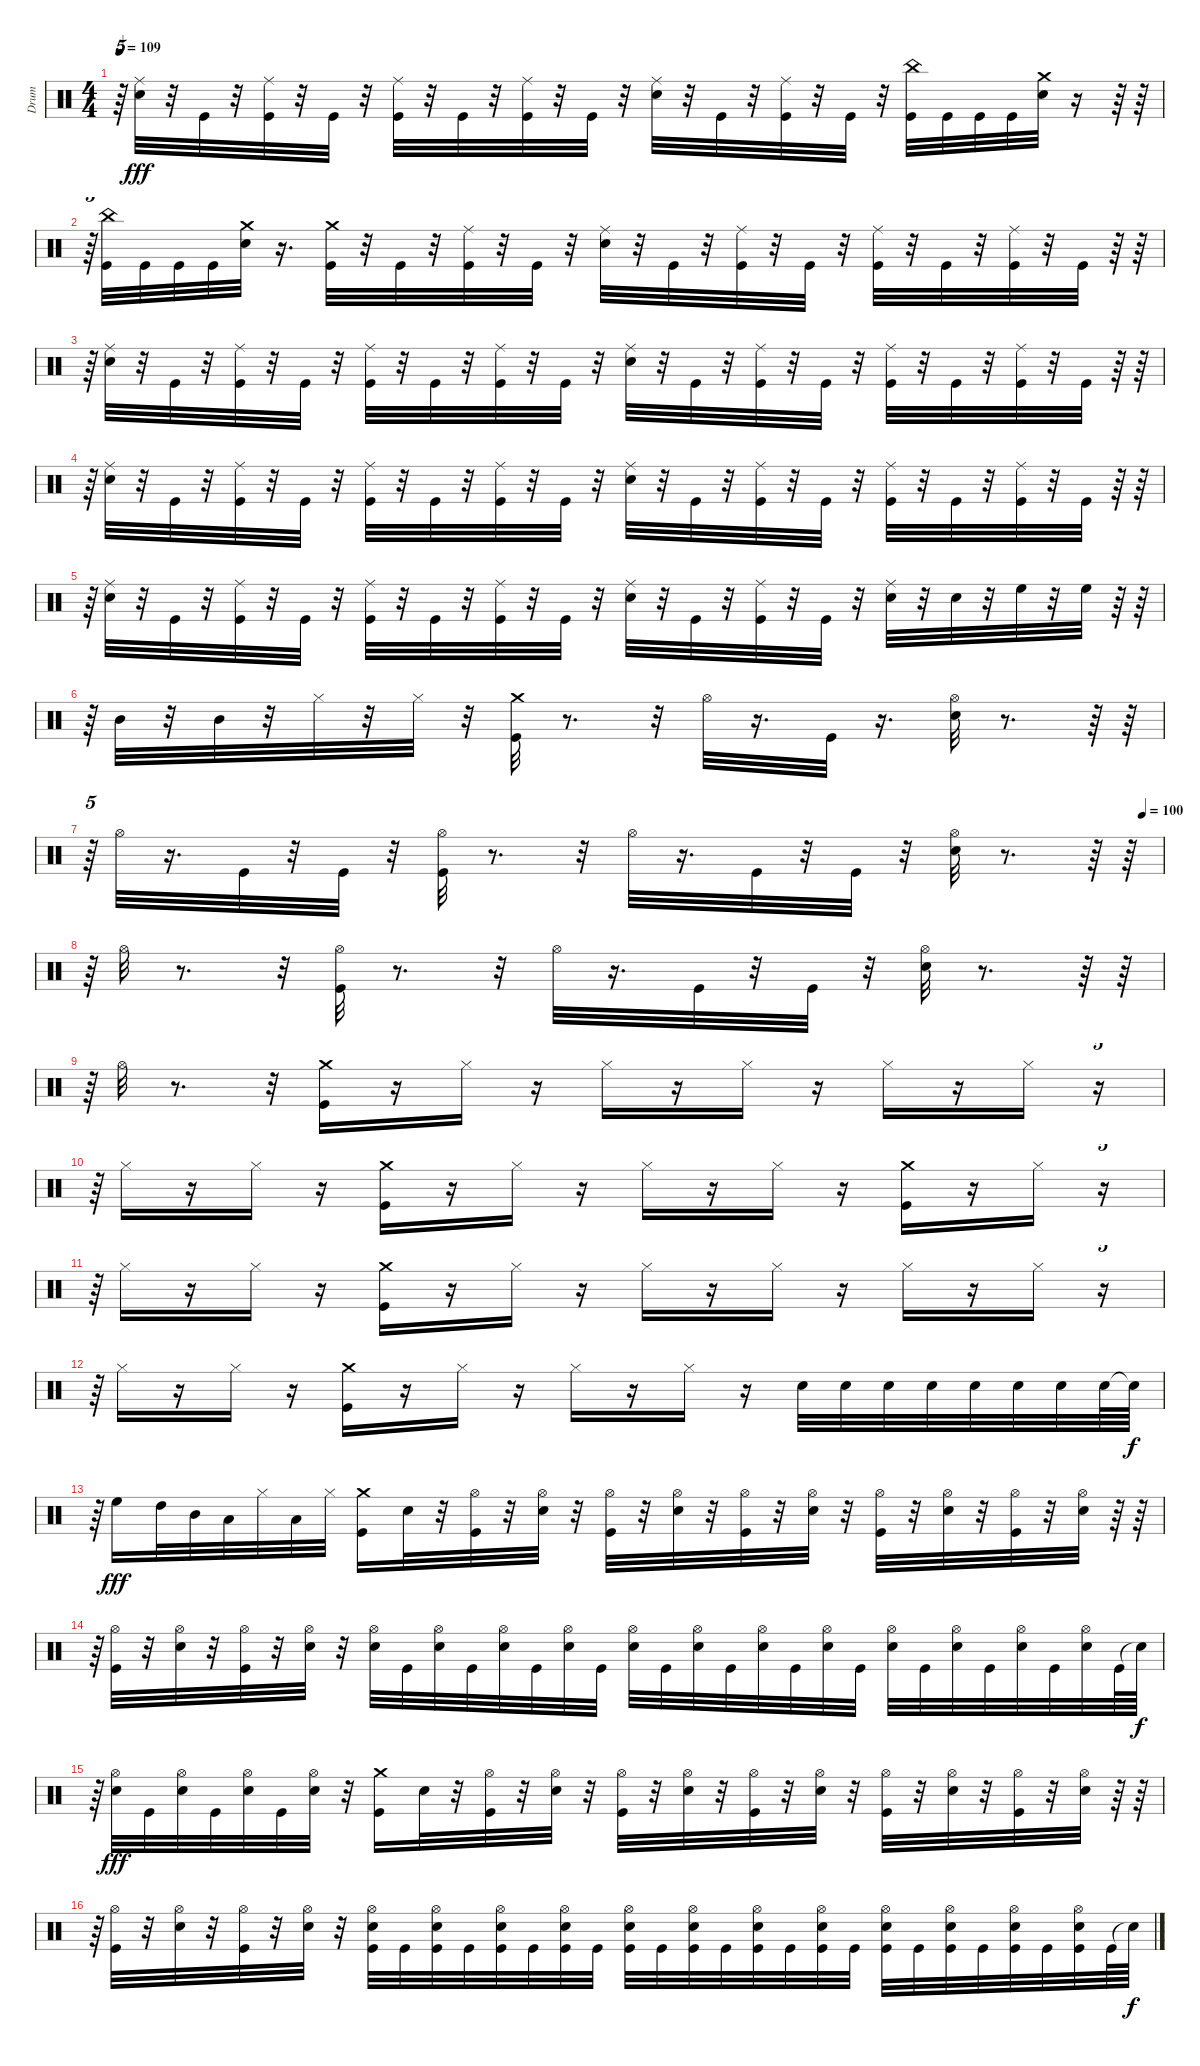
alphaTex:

\track ("Drum" "Drum") {instrument percussion}
\staff {score}
\articulation defaults
\ts (4 4)
\tempo 109
\clef neutral
\ks c
r.64{tu (5 4) dy fff} ("Snare (hit) 2" "Ride (middle)").32 r.32 "Kick (hit)".32 r.32 ("Kick (hit)" "Ride (middle)").32 r.32 "Kick (hit)".32 r.32 ("Kick (hit)" "Ride (middle)").32 r.32 "Kick (hit)".32 r.32 ("Ride (middle)" "Kick (hit)").32 r.32 "Kick (hit)".32 r.32 ("Ride (middle)" "Snare (hit) 2").32 r.32 "Kick (hit)".32 r.32 ("Kick (hit)" "Ride (middle)").32 r.32 "Kick (hit)".32 r.32 ("Kick (hit)" "China (hit)").32 "Kick (hit)".32 "Kick (hit)".32 "Kick (hit)".32 ("Crash medium (hit)" "Snare (hit) 2").32 r.16 r.64 r.64 |
r.64{tu (5 4)} ("China (hit)" "Kick (hit)").32 "Kick (hit)".32 "Kick (hit)".32 "Kick (hit)".32 ("Crash medium (hit)" "Snare (hit) 2").32 r.16{d} ("Crash medium (hit)" "Kick (hit)").32 r.32 "Kick (hit)".32 r.32 ("Kick (hit)" "Ride (middle)").32 r.32 "Kick (hit)".32 r.32 ("Ride (middle)" "Snare (hit) 2").32 r.32 "Kick (hit)".32 r.32 ("Kick (hit)" "Ride (middle)").32 r.32 "Kick (hit)".32 r.32 ("Ride (middle)" "Kick (hit)").32 r.32 "Kick (hit)".32 r.32 ("Kick (hit)" "Ride (middle)").32 r.32 "Kick (hit)".32 r.64 r.64 |
r.64{tu (5 4)} ("Snare (hit) 2" "Ride (middle)").32 r.32 "Kick (hit)".32 r.32 ("Ride (middle)" "Kick (hit)").32 r.32 "Kick (hit)".32 r.32 ("Kick (hit)" "Ride (middle)").32 r.32 "Kick (hit)".32 r.32 ("Ride (middle)" "Kick (hit)").32 r.32 "Kick (hit)".32 r.32 ("Snare (hit) 2" "Ride (middle)").32 r.32 "Kick (hit)".32 r.32 ("Kick (hit)" "Ride (middle)").32 r.32 "Kick (hit)".32 r.32 ("Kick (hit)" "Ride (middle)").32 r.32 "Kick (hit)".32 r.32 ("Ride (middle)" "Kick (hit)").32 r.32 "Kick (hit)".32 r.64 r.64 |
r.64{tu (5 4)} ("Snare (hit) 2" "Ride (middle)").32 r.32 "Kick (hit)".32 r.32 ("Ride (middle)" "Kick (hit)").32 r.32 "Kick (hit)".32 r.32 ("Kick (hit)" "Ride (middle)").32 r.32 "Kick (hit)".32 r.32 ("Kick (hit)" "Ride (middle)").32 r.32 "Kick (hit)".32 r.32 ("Ride (middle)" "Snare (hit) 2").32 r.32 "Kick (hit)".32 r.32 ("Ride (middle)" "Kick (hit)").32 r.32 "Kick (hit)".32 r.32 ("Ride (middle)" "Kick (hit)").32 r.32 "Kick (hit)".32 r.32 ("Ride (middle)" "Kick (hit)").32 r.32 "Kick (hit)".32 r.64 r.64 |
r.64{tu (5 4)} ("Snare (hit) 2" "Ride (middle)").32 r.32 "Kick (hit)".32 r.32 ("Ride (middle)" "Kick (hit)").32 r.32 "Kick (hit)".32 r.32 ("Ride (middle)" "Kick (hit)").32 r.32 "Kick (hit)".32 r.32 ("Kick (hit)" "Ride (middle)").32 r.32 "Kick (hit)".32 r.32 ("Ride (middle)" "Snare (hit) 2").32 r.32 "Kick (hit)".32 r.32 ("Ride (middle)" "Kick (hit)").32 r.32 "Kick (hit)".32 r.32 ("Snare (hit) 2" "Ride (middle)").32 r.32 "Snare (hit) 2".32 r.32 "High Floor Tom (hit)".32 r.32 "High Floor Tom (hit)".32 r.64 r.64 |
r.64{tu (5 4)} "Mid Tom (hit)".32 r.32 "Mid Tom (hit)".32 r.32 "Hi-Hat (closed)".32 r.32 "Hi-Hat (closed)".32 r.32 ("Crash medium (hit)" "Kick (hit)").32 r.8{d} r.32 "Hi-Hat (open)".32 r.16{d} "Kick (hit)".32 r.16{d} ("Hi-Hat (open)" "Snare (hit) 2").32 r.8{d} r.64 r.64 |
\tempo (100 0.98125)
r.64{tu (5 4)} "Hi-Hat (open)".32 r.16{d} "Kick (hit)".32 r.32 "Kick (hit)".32 r.32 ("Hi-Hat (open)" "Kick (hit)").32 r.8{d} r.32 "Hi-Hat (open)".32 r.16{d} "Kick (hit)".32 r.32 "Kick (hit)".32 r.32 ("Snare (hit) 2" "Hi-Hat (open)").32 r.8{d} r.64 r.64 |
r.64{tu (5 4)} "Hi-Hat (open)".32 r.8{d} r.32 ("Hi-Hat (open)" "Kick (hit)").32 r.8{d} r.32 "Hi-Hat (open)".32 r.16{d} "Kick (hit)".32 r.32 "Kick (hit)".32 r.32 ("Hi-Hat (open)" "Snare (hit) 2").32 r.8{d} r.64 r.64 |
r.64{tu (5 4)} "Hi-Hat (open)".32 r.8{d} r.32 ("Crash medium (hit)" "Kick (hit)").16 r.16 "Hi-Hat (closed)".16 r.16 "Hi-Hat (closed)".16 r.16 "Hi-Hat (closed)".16 r.16 "Hi-Hat (closed)".16 r.16 "Hi-Hat (closed)".16 r.16{tu (5 4)} |
r.64{tu (5 4)} "Hi-Hat (closed)".16 r.16 "Hi-Hat (closed)".16 r.16 ("Kick (hit)" "Crash medium (hit)").16 r.16 "Hi-Hat (closed)".16 r.16 "Hi-Hat (closed)".16 r.16 "Hi-Hat (closed)".16 r.16 ("Crash medium (hit)" "Kick (hit)").16 r.16 "Hi-Hat (closed)".16 r.16{tu (5 4)} |
r.64{tu (5 4)} "Hi-Hat (closed)".16 r.16 "Hi-Hat (closed)".16 r.16 ("Crash medium (hit)" "Kick (hit)").16 r.16 "Hi-Hat (closed)".16 r.16 "Hi-Hat (closed)".16 r.16 "Hi-Hat (closed)".16 r.16 "Hi-Hat (closed)".16 r.16 "Hi-Hat (closed)".16 r.16{tu (5 4)} |
r.64{tu (5 4)} "Hi-Hat (closed)".16 r.16 "Hi-Hat (closed)".16 r.16 ("Kick (hit)" "Crash medium (hit)").16 r.16 "Hi-Hat (closed)".16 r.16 "Hi-Hat (closed)".16 r.16 "Hi-Hat (closed)".16 r.16 "Snare (hit) 2".32 "Snare (hit) 2".32 "Snare (hit) 2".32 "Snare (hit) 2".32 "Snare (hit) 2".32 "Snare (hit) 2".32 "Snare (hit) 2".32 "Snare (hit) 2".64 "Snare (hit)"{t}.64{dy f} |
r.64{tu (5 4)} "High Floor Tom (hit)".16{dy fff} "High Tom (hit)".32 "Mid Tom (hit)".32 "Low Tom (hit)".32 "Hi-Hat (closed)".32 "Low Floor Tom (hit)".32 "Hi-Hat (closed)".32 ("Crash medium (hit)" "Kick (hit)").16 "Snare (hit) 2".32 r.32 ("Kick (hit)" "Hi-Hat (open)").32 r.32 ("Snare (hit) 2" "Hi-Hat (open)").32 r.32 ("Hi-Hat (open)" "Kick (hit)").32 r.32 ("Hi-Hat (open)" "Snare (hit) 2").32 r.32 ("Kick (hit)" "Hi-Hat (open)").32 r.32 ("Snare (hit) 2" "Hi-Hat (open)").32 r.32 ("Hi-Hat (open)" "Kick (hit)").32 r.32 ("Hi-Hat (open)" "Snare (hit) 2").32 r.32 ("Kick (hit)" "Hi-Hat (open)").32 r.32 ("Snare (hit) 2" "Hi-Hat (open)").32 r.64 r.64 |
r.64{tu (5 4)} ("Hi-Hat (open)" "Kick (hit)").32 r.32 ("Snare (hit) 2" "Hi-Hat (open)").32 r.32 ("Hi-Hat (open)" "Kick (hit)").32 r.32 ("Hi-Hat (open)" "Snare (hit) 2").32 r.32 ("Hi-Hat (open)" "Snare (hit) 2").32 "Kick (hit)".32 ("Snare (hit) 2" "Hi-Hat (open)").32 "Kick (hit)".32 ("Snare (hit) 2" "Hi-Hat (open)").32 "Kick (hit)".32 ("Hi-Hat (open)" "Snare (hit) 2").32 "Kick (hit)".32 ("Snare (hit) 2" "Hi-Hat (open)").32 "Kick (hit)".32 ("Snare (hit) 2" "Hi-Hat (open)").32 "Kick (hit)".32 ("Hi-Hat (open)" "Snare (hit) 2").32 "Kick (hit)".32 ("Hi-Hat (open)" "Snare (hit) 2").32 "Kick (hit)".32 ("Hi-Hat (open)" "Snare (hit) 2").32 "Kick (hit)".32 ("Snare (hit) 2" "Hi-Hat (open)").32 "Kick (hit)".32 ("Hi-Hat (open)" "Snare (hit) 2").32 "Kick (hit)".32 ("Snare (hit) 2" "Hi-Hat (open)").32 "Kick (hit)".64 "Snare (hit)"{t}.64{dy f} |
r.64{tu (5 4)} ("Hi-Hat (open)" "Snare (hit) 2").32{dy fff} "Kick (hit)".32 ("Snare (hit) 2" "Hi-Hat (open)").32 "Kick (hit)".32 ("Hi-Hat (open)" "Snare (hit) 2").32 "Kick (hit)".32 ("Hi-Hat (open)" "Snare (hit) 2").32 r.32 ("Crash medium (hit)" "Kick (hit)").16 "Snare (hit) 2".32 r.32 ("Kick (hit)" "Hi-Hat (open)").32 r.32 ("Snare (hit) 2" "Hi-Hat (open)").32 r.32 ("Hi-Hat (open)" "Kick (hit)").32 r.32 ("Snare (hit) 2" "Hi-Hat (open)").32 r.32 ("Kick (hit)" "Hi-Hat (open)").32 r.32 ("Snare (hit) 2" "Hi-Hat (open)").32 r.32 ("Hi-Hat (open)" "Kick (hit)").32 r.32 ("Hi-Hat (open)" "Snare (hit) 2").32 r.32 ("Hi-Hat (open)" "Kick (hit)").32 r.32 ("Snare (hit) 2" "Hi-Hat (open)").32 r.64 r.64 |
r.64{tu (5 4)} ("Hi-Hat (open)" "Kick (hit)").32 r.32 ("Hi-Hat (open)" "Snare (hit) 2").32 r.32 ("Hi-Hat (open)" "Kick (hit)").32 r.32 ("Hi-Hat (open)" "Snare (hit) 2").32 r.32 ("Hi-Hat (open)" "Kick (hit)" "Snare (hit) 2").32 "Kick (hit)".32 ("Snare (hit) 2" "Hi-Hat (open)" "Kick (hit)").32 "Kick (hit)".32 ("Hi-Hat (open)" "Kick (hit)" "Snare (hit) 2").32 "Kick (hit)".32 ("Kick (hit)" "Snare (hit) 2" "Hi-Hat (open)").32 "Kick (hit)".32 ("Snare (hit) 2" "Hi-Hat (open)" "Kick (hit)").32 "Kick (hit)".32 ("Kick (hit)" "Snare (hit) 2" "Hi-Hat (open)").32 "Kick (hit)".32 ("Hi-Hat (open)" "Kick (hit)" "Snare (hit) 2").32 "Kick (hit)".32 ("Snare (hit) 2" "Kick (hit)" "Hi-Hat (open)").32 "Kick (hit)".32 ("Kick (hit)" "Hi-Hat (open)" "Snare (hit) 2").32 "Kick (hit)".32 ("Snare (hit) 2" "Hi-Hat (open)" "Kick (hit)").32 "Kick (hit)".32 ("Hi-Hat (open)" "Snare (hit) 2" "Kick (hit)").32 "Kick (hit)".32 ("Kick (hit)" "Snare (hit) 2" "Hi-Hat (open)").32 "Kick (hit)".64 "Snare (hit)"{t}.64{dy f}
